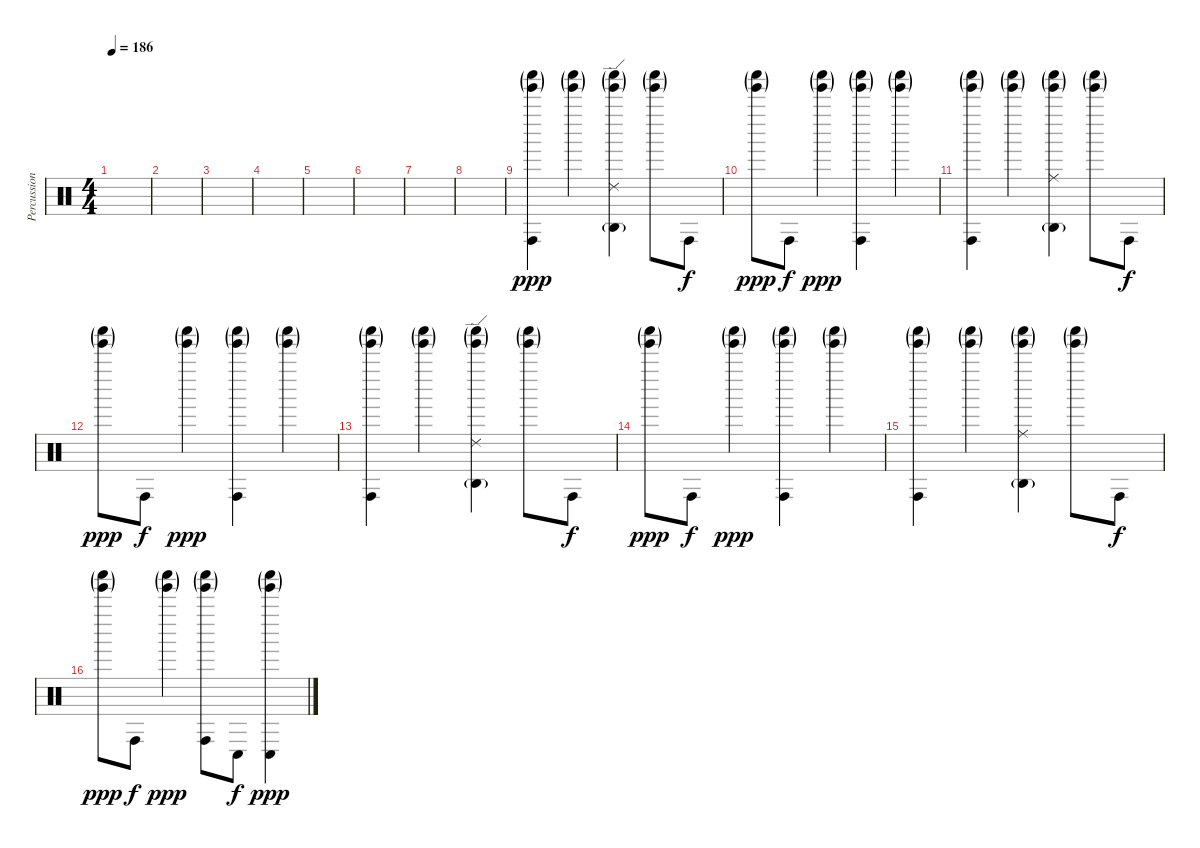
\track ("Percussion" "Percussion") {instrument percussion}
\staff {score}
\articulation defaults
\ts (4 4)
\tempo 186
\clef neutral
\ks c
|
|
|
|
|
|
|
|
("Conga high (hit)" "Shaker (hit)"{g} "Tinkle Bell (hit)"{g}).4{dy ppp} ("Shaker (hit)"{g} "Tinkle Bell (hit)"{g}).4 ("Ride (edge) 2" "Agogo high (hit)"{g} "Shaker (hit)"{g} "Tinkle Bell (hit)"{g}).4 ("Shaker (hit)"{g} "Tinkle Bell (hit)"{g}).8 "Conga high (hit)".8{dy f} |
("Shaker (hit)"{g} "Tinkle Bell (hit)"{g}).8{dy ppp} "Conga high (hit)".8{dy f} ("Shaker (hit)"{g} "Tinkle Bell (hit)"{g}).4{dy ppp} ("Conga high (hit)" "Shaker (hit)"{g} "Tinkle Bell (hit)"{g}).4 ("Shaker (hit)"{g} "Tinkle Bell (hit)"{g}).4 |
("Conga high (hit)" "Shaker (hit)"{g} "Tinkle Bell (hit)"{g}).4 ("Shaker (hit)"{g} "Tinkle Bell (hit)"{g}).4 ("Ride (middle)" "Agogo high (hit)"{g} "Shaker (hit)"{g} "Tinkle Bell (hit)"{g}).4 ("Shaker (hit)"{g} "Tinkle Bell (hit)"{g}).8 "Conga high (hit)".8{dy f} |
("Shaker (hit)"{g} "Tinkle Bell (hit)"{g}).8{dy ppp} "Conga high (hit)".8{dy f} ("Shaker (hit)"{g} "Tinkle Bell (hit)"{g}).4{dy ppp} ("Conga high (hit)" "Shaker (hit)"{g} "Tinkle Bell (hit)"{g}).4 ("Shaker (hit)"{g} "Tinkle Bell (hit)"{g}).4 |
("Conga high (hit)" "Shaker (hit)"{g} "Tinkle Bell (hit)"{g}).4 ("Shaker (hit)"{g} "Tinkle Bell (hit)"{g}).4 ("Ride (edge) 2" "Agogo high (hit)"{g} "Shaker (hit)"{g} "Tinkle Bell (hit)"{g}).4 ("Shaker (hit)"{g} "Tinkle Bell (hit)"{g}).8 "Conga high (hit)".8{dy f} |
("Shaker (hit)"{g} "Tinkle Bell (hit)"{g}).8{dy ppp} "Conga high (hit)".8{dy f} ("Shaker (hit)"{g} "Tinkle Bell (hit)"{g}).4{dy ppp} ("Conga high (hit)" "Shaker (hit)"{g} "Tinkle Bell (hit)"{g}).4 ("Shaker (hit)"{g} "Tinkle Bell (hit)"{g}).4 |
("Conga high (hit)" "Shaker (hit)"{g} "Tinkle Bell (hit)"{g}).4 ("Shaker (hit)"{g} "Tinkle Bell (hit)"{g}).4 ("Ride (middle)" "Agogo high (hit)"{g} "Shaker (hit)"{g} "Tinkle Bell (hit)"{g}).4 ("Shaker (hit)"{g} "Tinkle Bell (hit)"{g}).8 "Conga high (hit)".8{dy f} |
("Shaker (hit)"{g} "Tinkle Bell (hit)"{g}).8{dy ppp} "Conga high (hit)".8{dy f} ("Shaker (hit)"{g} "Tinkle Bell (hit)"{g}).4{dy ppp} ("Conga high (hit)" "Shaker (hit)"{g} "Tinkle Bell (hit)"{g}).8 "Conga low (hit)".8{dy f} ("Conga low (hit)" "Shaker (hit)"{g} "Tinkle Bell (hit)"{g}).4{dy ppp}
